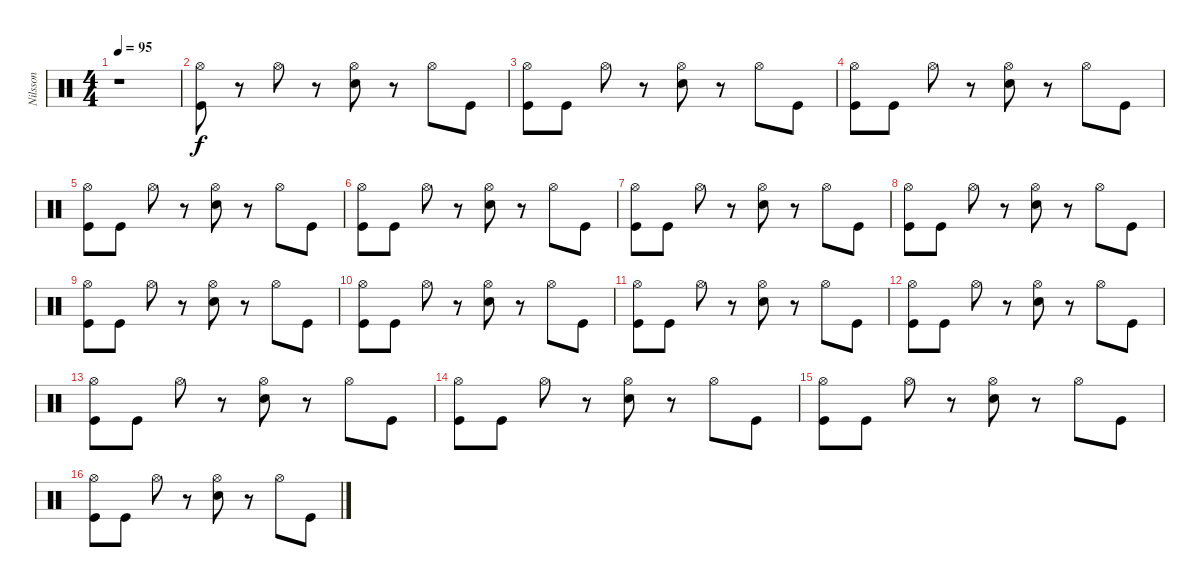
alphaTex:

\track ("Nilsson" "Nilsson") {instrument percussion}
\staff {score}
\articulation defaults
\ts (4 4)
\tempo 95
\clef neutral
\ks c
r.1{dy f} |
("Hi-Hat (open)" "Kick (hit)").8 r.8 "Hi-Hat (open)".8 r.8 ("Hi-Hat (open)" "Electric Snare (hit)").8 r.8 "Hi-Hat (open)".8 "Kick (hit)".8 |
("Hi-Hat (open)" "Kick (hit)").8 "Kick (hit)".8 "Hi-Hat (open)".8 r.8 ("Hi-Hat (open)" "Electric Snare (hit)").8 r.8 "Hi-Hat (open)".8 "Kick (hit)".8 |
("Hi-Hat (open)" "Kick (hit)").8 "Kick (hit)".8 "Hi-Hat (open)".8 r.8 ("Hi-Hat (open)" "Electric Snare (hit)").8 r.8 "Hi-Hat (open)".8 "Kick (hit)".8 |
("Hi-Hat (open)" "Kick (hit)").8 "Kick (hit)".8 "Hi-Hat (open)".8 r.8 ("Hi-Hat (open)" "Electric Snare (hit)").8 r.8 "Hi-Hat (open)".8 "Kick (hit)".8 |
("Hi-Hat (open)" "Kick (hit)").8 "Kick (hit)".8 "Hi-Hat (open)".8 r.8 ("Hi-Hat (open)" "Electric Snare (hit)").8 r.8 "Hi-Hat (open)".8 "Kick (hit)".8 |
("Hi-Hat (open)" "Kick (hit)").8 "Kick (hit)".8 "Hi-Hat (open)".8 r.8 ("Hi-Hat (open)" "Electric Snare (hit)").8 r.8 "Hi-Hat (open)".8 "Kick (hit)".8 |
("Hi-Hat (open)" "Kick (hit)").8 "Kick (hit)".8 "Hi-Hat (open)".8 r.8 ("Hi-Hat (open)" "Electric Snare (hit)").8 r.8 "Hi-Hat (open)".8 "Kick (hit)".8 |
("Hi-Hat (open)" "Kick (hit)").8 "Kick (hit)".8 "Hi-Hat (open)".8 r.8 ("Hi-Hat (open)" "Electric Snare (hit)").8 r.8 "Hi-Hat (open)".8 "Kick (hit)".8 |
("Hi-Hat (open)" "Kick (hit)").8 "Kick (hit)".8 "Hi-Hat (open)".8 r.8 ("Hi-Hat (open)" "Electric Snare (hit)").8 r.8 "Hi-Hat (open)".8 "Kick (hit)".8 |
("Hi-Hat (open)" "Kick (hit)").8 "Kick (hit)".8 "Hi-Hat (open)".8 r.8 ("Hi-Hat (open)" "Electric Snare (hit)").8 r.8 "Hi-Hat (open)".8 "Kick (hit)".8 |
("Hi-Hat (open)" "Kick (hit)").8 "Kick (hit)".8 "Hi-Hat (open)".8 r.8 ("Hi-Hat (open)" "Electric Snare (hit)").8 r.8 "Hi-Hat (open)".8 "Kick (hit)".8 |
("Hi-Hat (open)" "Kick (hit)").8 "Kick (hit)".8 "Hi-Hat (open)".8 r.8 ("Hi-Hat (open)" "Electric Snare (hit)").8 r.8 "Hi-Hat (open)".8 "Kick (hit)".8 |
("Hi-Hat (open)" "Kick (hit)").8 "Kick (hit)".8 "Hi-Hat (open)".8 r.8 ("Hi-Hat (open)" "Electric Snare (hit)").8 r.8 "Hi-Hat (open)".8 "Kick (hit)".8 |
("Hi-Hat (open)" "Kick (hit)").8 "Kick (hit)".8 "Hi-Hat (open)".8 r.8 ("Hi-Hat (open)" "Electric Snare (hit)").8 r.8 "Hi-Hat (open)".8 "Kick (hit)".8 |
("Hi-Hat (open)" "Kick (hit)").8 "Kick (hit)".8 "Hi-Hat (open)".8 r.8 ("Hi-Hat (open)" "Electric Snare (hit)").8 r.8 "Hi-Hat (open)".8 "Kick (hit)".8
